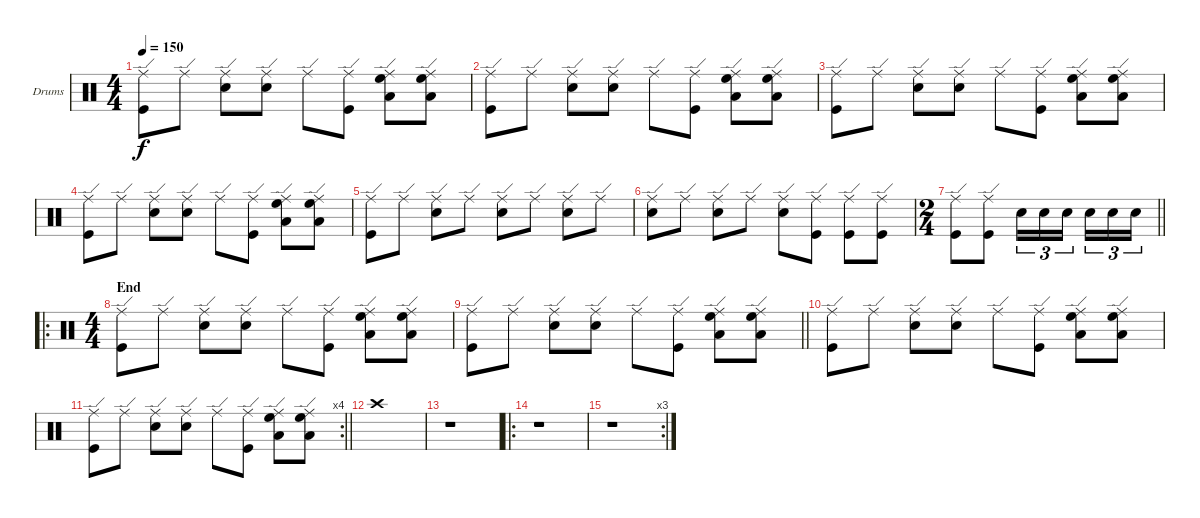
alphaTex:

\bracketExtendMode groupsimilarinstruments
\firstSystemTrackNameOrientation horizontal
\otherSystemsTrackNameOrientation horizontal
\track ("Drumkit" "Drums") {instrument percussion}
\staff {score}
\articulation defaults
\ts (4 4)
\tempo 150
\clef neutral
\ks c
("Ride (edge)" "Kick (hit)").8{dy f} "Ride (edge)".8 ("Ride (edge)" "Snare (hit) 2").8 ("Ride (edge)" "Snare (hit) 2").8 "Ride (edge)".8 ("Ride (edge)" "Kick (hit)").8 ("Ride (edge)" "High Floor Tom (hit)" "Low Tom (hit)").8 ("Ride (edge)" "High Floor Tom (hit)" "Low Tom (hit)").8 |
("Ride (edge)" "Kick (hit)").8 "Ride (edge)".8 ("Ride (edge)" "Snare (hit) 2").8 ("Ride (edge)" "Snare (hit) 2").8 "Ride (edge)".8 ("Ride (edge)" "Kick (hit)").8 ("Ride (edge)" "High Floor Tom (hit)" "Low Tom (hit)").8 ("Ride (edge)" "High Floor Tom (hit)" "Low Tom (hit)").8 |
("Ride (edge)" "Kick (hit)").8 "Ride (edge)".8 ("Ride (edge)" "Snare (hit) 2").8 ("Ride (edge)" "Snare (hit) 2").8 "Ride (edge)".8 ("Ride (edge)" "Kick (hit)").8 ("Ride (edge)" "High Floor Tom (hit)" "Low Tom (hit)").8 ("Ride (edge)" "High Floor Tom (hit)" "Low Tom (hit)").8 |
("Ride (edge)" "Kick (hit)").8 "Ride (edge)".8 ("Ride (edge)" "Snare (hit) 2").8 ("Ride (edge)" "Snare (hit) 2").8 "Ride (edge)".8 ("Ride (edge)" "Kick (hit)").8 ("Ride (edge)" "High Floor Tom (hit)" "Low Tom (hit)").8 ("Ride (edge)" "High Floor Tom (hit)" "Low Tom (hit)").8 |
("Ride (edge)" "Kick (hit)").8 "Ride (edge)".8 ("Ride (edge)" "Snare (hit) 2").8 "Ride (edge)".8 ("Ride (edge)" "Snare (hit) 2").8 "Ride (edge)".8 ("Ride (edge)" "Snare (hit) 2").8 "Ride (edge)".8 |
("Ride (edge)" "Snare (hit) 2").8 "Ride (edge)".8 ("Ride (edge)" "Snare (hit) 2").8 "Ride (edge)".8 ("Ride (edge)" "Snare (hit) 2").8 ("Ride (edge)" "Kick (hit)").8 ("Ride (edge)" "Kick (hit)").8 ("Ride (edge)" "Kick (hit)").8 |
\ts (2 4)
\beaming (8 2 2)
\barLineRight lightlight
("Ride (edge)" "Kick (hit)").8 ("Ride (edge)" "Kick (hit)").8 "Snare (hit) 2".16{tu (3 2)} "Snare (hit) 2".16{tu (3 2)} "Snare (hit) 2".16{tu (3 2)} "Snare (hit) 2".16{tu (3 2)} "Snare (hit) 2".16{tu (3 2)} "Snare (hit) 2".16{tu (3 2)} |
\ro
\ts (4 4)
\beaming (8 2 2 2 2)
\section ("" "End")
("Ride (edge)" "Kick (hit)").8 "Ride (edge)".8 ("Ride (edge)" "Snare (hit) 2").8 ("Ride (edge)" "Snare (hit) 2").8 "Ride (edge)".8 ("Ride (edge)" "Kick (hit)").8 ("Ride (edge)" "High Floor Tom (hit)" "Low Tom (hit)").8 ("Ride (edge)" "High Floor Tom (hit)" "Low Tom (hit)").8 |
\barLineRight lightlight
("Ride (edge)" "Kick (hit)").8 "Ride (edge)".8 ("Ride (edge)" "Snare (hit) 2").8 ("Ride (edge)" "Snare (hit) 2").8 "Ride (edge)".8 ("Ride (edge)" "Kick (hit)").8 ("Ride (edge)" "High Floor Tom (hit)" "Low Tom (hit)").8 ("Ride (edge)" "High Floor Tom (hit)" "Low Tom (hit)").8 |
("Ride (edge)" "Kick (hit)").8 "Ride (edge)".8 ("Ride (edge)" "Snare (hit) 2").8 ("Ride (edge)" "Snare (hit) 2").8 "Ride (edge)".8 ("Ride (edge)" "Kick (hit)").8 ("Ride (edge)" "High Floor Tom (hit)" "Low Tom (hit)").8 ("Ride (edge)" "High Floor Tom (hit)" "Low Tom (hit)").8 |
\rc 4
\barLineRight lightlight
("Ride (edge)" "Kick (hit)").8 "Ride (edge)".8 ("Ride (edge)" "Snare (hit) 2").8 ("Ride (edge)" "Snare (hit) 2").8 "Ride (edge)".8 ("Ride (edge)" "Kick (hit)").8 ("Ride (edge)" "High Floor Tom (hit)" "Low Tom (hit)").8 ("Ride (edge)" "High Floor Tom (hit)" "Low Tom (hit)").8 |
"Crash high (hit)".1 |
r.1 |
\ro
r.1 |
\rc 3
r.1
